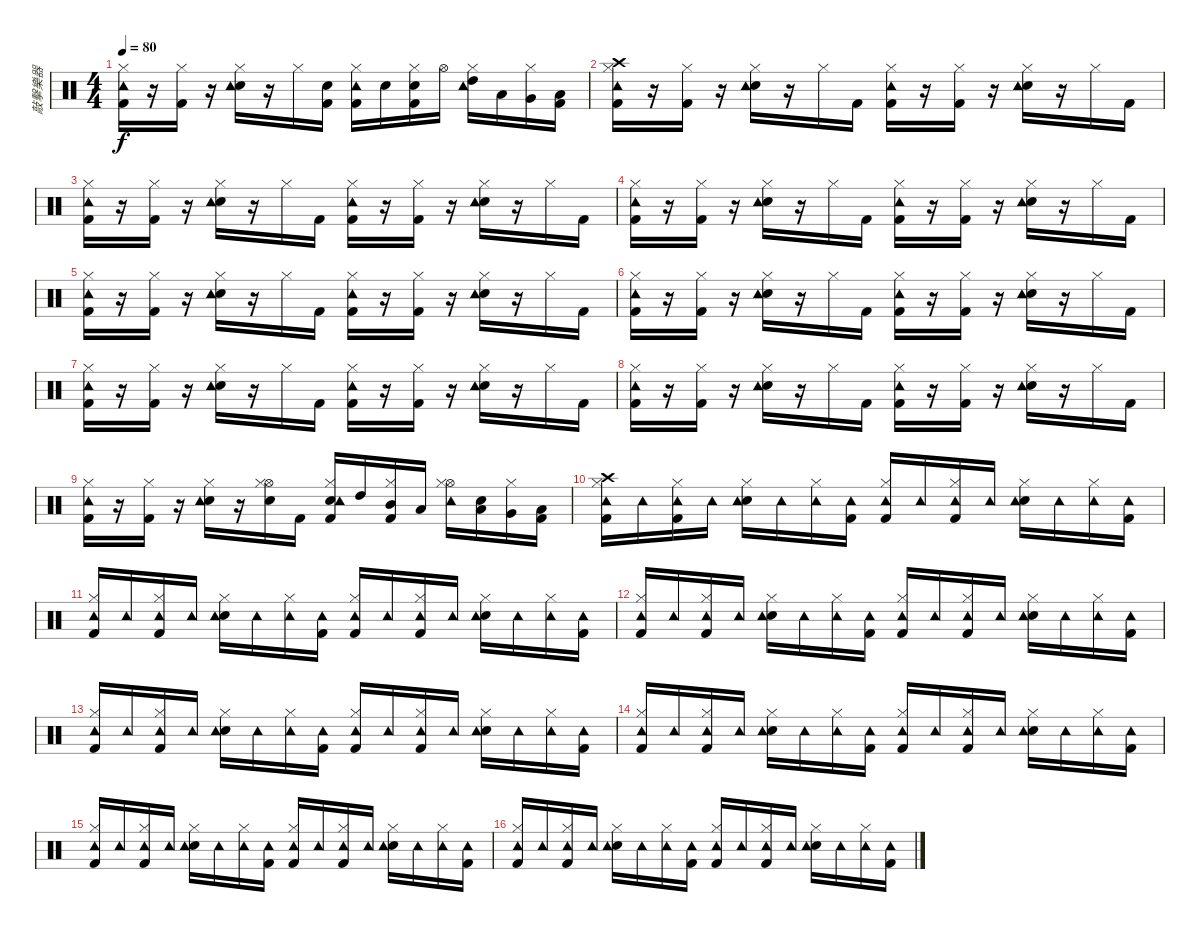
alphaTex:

\track ("敲擊樂器" "敲擊樂器") {instrument percussion}
\staff {score}
\articulation defaults
\ts (4 4)
\tempo 80
\clef neutral
\ks c
("Kick (hit) 2" "Hi-Hat (closed)" "Tambourine (hit)").16{dy f} r.16 ("Kick (hit) 2" "Hi-Hat (closed)").16 r.16 ("Snare (hit) 2" "Hi-Hat (closed)" "Tambourine (hit)").16 r.16 "Hi-Hat (closed)".16 ("Kick (hit) 2" "Snare (hit) 2").16 ("Kick (hit) 2" "Hi-Hat (closed)" "Tambourine (hit)").16 "Electric Snare (hit)".16 ("Kick (hit) 2" "Electric Snare (hit)" "Hi-Hat (closed)").16 "Hi-Hat (open)".16 ("High Tom (hit)" "Hi-Hat (closed)" "Tambourine (hit)").16 "Low Tom (hit)".16 ("Very Low Tom (hit)" "Hi-Hat (closed)").16 ("Kick (hit) 2" "Low Floor Tom (hit)").16 |
("Kick (hit) 2" "Crash high (hit)" "Hi-Hat (closed)" "Tambourine (hit)").16 r.16 ("Kick (hit) 2" "Hi-Hat (closed)").16 r.16 ("Snare (hit) 2" "Hi-Hat (closed)" "Tambourine (hit)").16 r.16 "Hi-Hat (closed)".16 "Kick (hit) 2".16 ("Kick (hit) 2" "Hi-Hat (closed)" "Tambourine (hit)").16 r.16 ("Kick (hit) 2" "Hi-Hat (closed)").16 r.16 ("Snare (hit) 2" "Hi-Hat (closed)" "Tambourine (hit)").16 r.16 "Hi-Hat (closed)".16 "Kick (hit) 2".16 |
("Kick (hit) 2" "Hi-Hat (closed)" "Tambourine (hit)").16 r.16 ("Kick (hit) 2" "Hi-Hat (closed)").16 r.16 ("Snare (hit) 2" "Hi-Hat (closed)" "Tambourine (hit)").16 r.16 "Hi-Hat (closed)".16 "Kick (hit) 2".16 ("Kick (hit) 2" "Hi-Hat (closed)" "Tambourine (hit)").16 r.16 ("Kick (hit) 2" "Hi-Hat (closed)").16 r.16 ("Snare (hit) 2" "Hi-Hat (closed)" "Tambourine (hit)").16 r.16 "Hi-Hat (closed)".16 "Kick (hit) 2".16 |
("Kick (hit) 2" "Hi-Hat (closed)" "Tambourine (hit)").16 r.16 ("Kick (hit) 2" "Hi-Hat (closed)").16 r.16 ("Snare (hit) 2" "Hi-Hat (closed)" "Tambourine (hit)").16 r.16 "Hi-Hat (closed)".16 "Kick (hit) 2".16 ("Kick (hit) 2" "Hi-Hat (closed)" "Tambourine (hit)").16 r.16 ("Kick (hit) 2" "Hi-Hat (closed)").16 r.16 ("Snare (hit) 2" "Hi-Hat (closed)" "Tambourine (hit)").16 r.16 "Hi-Hat (closed)".16 "Kick (hit) 2".16 |
("Kick (hit) 2" "Hi-Hat (closed)" "Tambourine (hit)").16 r.16 ("Kick (hit) 2" "Hi-Hat (closed)").16 r.16 ("Snare (hit) 2" "Hi-Hat (closed)" "Tambourine (hit)").16 r.16 "Hi-Hat (closed)".16 "Kick (hit) 2".16 ("Kick (hit) 2" "Hi-Hat (closed)" "Tambourine (hit)").16 r.16 ("Kick (hit) 2" "Hi-Hat (closed)").16 r.16 ("Snare (hit) 2" "Hi-Hat (closed)" "Tambourine (hit)").16 r.16 "Hi-Hat (closed)".16 "Kick (hit) 2".16 |
("Kick (hit) 2" "Hi-Hat (closed)" "Tambourine (hit)").16 r.16 ("Kick (hit) 2" "Hi-Hat (closed)").16 r.16 ("Snare (hit) 2" "Hi-Hat (closed)" "Tambourine (hit)").16 r.16 "Hi-Hat (closed)".16 "Kick (hit) 2".16 ("Kick (hit) 2" "Hi-Hat (closed)" "Tambourine (hit)").16 r.16 ("Kick (hit) 2" "Hi-Hat (closed)").16 r.16 ("Snare (hit) 2" "Hi-Hat (closed)" "Tambourine (hit)").16 r.16 "Hi-Hat (closed)".16 "Kick (hit) 2".16 |
("Kick (hit) 2" "Hi-Hat (closed)" "Tambourine (hit)").16 r.16 ("Kick (hit) 2" "Hi-Hat (closed)").16 r.16 ("Snare (hit) 2" "Hi-Hat (closed)" "Tambourine (hit)").16 r.16 "Hi-Hat (closed)".16 "Kick (hit) 2".16 ("Kick (hit) 2" "Hi-Hat (closed)" "Tambourine (hit)").16 r.16 ("Kick (hit) 2" "Hi-Hat (closed)").16 r.16 ("Snare (hit) 2" "Hi-Hat (closed)" "Tambourine (hit)").16 r.16 "Hi-Hat (closed)".16 "Kick (hit) 2".16 |
("Kick (hit) 2" "Hi-Hat (closed)" "Tambourine (hit)").16 r.16 ("Kick (hit) 2" "Hi-Hat (closed)").16 r.16 ("Snare (hit) 2" "Hi-Hat (closed)" "Tambourine (hit)").16 r.16 "Hi-Hat (closed)".16 "Kick (hit) 2".16 ("Kick (hit) 2" "Hi-Hat (closed)" "Tambourine (hit)").16 r.16 ("Kick (hit) 2" "Hi-Hat (closed)").16 r.16 ("Snare (hit) 2" "Hi-Hat (closed)" "Tambourine (hit)").16 r.16 "Hi-Hat (closed)".16 "Kick (hit) 2".16 |
("Kick (hit) 2" "Hi-Hat (closed)" "Tambourine (hit)").16 r.16 ("Kick (hit) 2" "Hi-Hat (closed)").16 r.16 ("Snare (hit) 2" "Hi-Hat (closed)" "Tambourine (hit)").16 r.16 ("Hi-Hat (open)" "Electric Snare (hit)" "Hi-Hat (closed)").16 "Kick (hit) 2".16 ("Kick (hit) 2" "Electric Snare (hit)" "Hi-Hat (closed)" "Tambourine (hit)").16 "High Tom (hit)".16 ("Kick (hit) 2" "Mid Tom (hit)" "Hi-Hat (closed)").16 "Low Tom (hit)".16 ("Hi-Hat (open)" "Hi-Hat (closed)" "Tambourine (hit)").16 ("Low Tom (hit)" "Snare (hit) 2").16 ("Very Low Tom (hit)" "Hi-Hat (closed)").16 ("Kick (hit) 2" "Low Floor Tom (hit)").16 |
("Kick (hit) 2" "Crash high (hit)" "Hi-Hat (closed)" "Tambourine (hit)").16 "Tambourine (hit)".16 ("Kick (hit) 2" "Hi-Hat (closed)" "Tambourine (hit)").16 "Tambourine (hit)".16 ("Snare (hit) 2" "Hi-Hat (closed)" "Tambourine (hit)").16 "Tambourine (hit)".16 ("Hi-Hat (closed)" "Tambourine (hit)").16 ("Kick (hit) 2" "Tambourine (hit)").16 ("Kick (hit) 2" "Hi-Hat (closed)" "Tambourine (hit)").16 "Tambourine (hit)".16 ("Kick (hit) 2" "Hi-Hat (closed)" "Tambourine (hit)").16 "Tambourine (hit)".16 ("Snare (hit) 2" "Hi-Hat (closed)" "Tambourine (hit)").16 "Tambourine (hit)".16 ("Hi-Hat (closed)" "Tambourine (hit)").16 ("Kick (hit) 2" "Tambourine (hit)").16 |
("Kick (hit) 2" "Hi-Hat (closed)" "Tambourine (hit)").16 "Tambourine (hit)".16 ("Kick (hit) 2" "Hi-Hat (closed)" "Tambourine (hit)").16 "Tambourine (hit)".16 ("Snare (hit) 2" "Hi-Hat (closed)" "Tambourine (hit)").16 "Tambourine (hit)".16 ("Hi-Hat (closed)" "Tambourine (hit)").16 ("Kick (hit) 2" "Tambourine (hit)").16 ("Kick (hit) 2" "Hi-Hat (closed)" "Tambourine (hit)").16 "Tambourine (hit)".16 ("Kick (hit) 2" "Hi-Hat (closed)" "Tambourine (hit)").16 "Tambourine (hit)".16 ("Snare (hit) 2" "Hi-Hat (closed)" "Tambourine (hit)").16 "Tambourine (hit)".16 ("Hi-Hat (closed)" "Tambourine (hit)").16 ("Kick (hit) 2" "Tambourine (hit)").16 |
("Kick (hit) 2" "Hi-Hat (closed)" "Tambourine (hit)").16 "Tambourine (hit)".16 ("Kick (hit) 2" "Hi-Hat (closed)" "Tambourine (hit)").16 "Tambourine (hit)".16 ("Snare (hit) 2" "Hi-Hat (closed)" "Tambourine (hit)").16 "Tambourine (hit)".16 ("Hi-Hat (closed)" "Tambourine (hit)").16 ("Kick (hit) 2" "Tambourine (hit)").16 ("Kick (hit) 2" "Hi-Hat (closed)" "Tambourine (hit)").16 "Tambourine (hit)".16 ("Kick (hit) 2" "Hi-Hat (closed)" "Tambourine (hit)").16 "Tambourine (hit)".16 ("Snare (hit) 2" "Hi-Hat (closed)" "Tambourine (hit)").16 "Tambourine (hit)".16 ("Hi-Hat (closed)" "Tambourine (hit)").16 ("Kick (hit) 2" "Tambourine (hit)").16 |
("Kick (hit) 2" "Hi-Hat (closed)" "Tambourine (hit)").16 "Tambourine (hit)".16 ("Kick (hit) 2" "Hi-Hat (closed)" "Tambourine (hit)").16 "Tambourine (hit)".16 ("Snare (hit) 2" "Hi-Hat (closed)" "Tambourine (hit)").16 "Tambourine (hit)".16 ("Hi-Hat (closed)" "Tambourine (hit)").16 ("Kick (hit) 2" "Tambourine (hit)").16 ("Kick (hit) 2" "Hi-Hat (closed)" "Tambourine (hit)").16 "Tambourine (hit)".16 ("Kick (hit) 2" "Hi-Hat (closed)" "Tambourine (hit)").16 "Tambourine (hit)".16 ("Snare (hit) 2" "Hi-Hat (closed)" "Tambourine (hit)").16 "Tambourine (hit)".16 ("Hi-Hat (closed)" "Tambourine (hit)").16 ("Kick (hit) 2" "Tambourine (hit)").16 |
("Kick (hit) 2" "Hi-Hat (closed)" "Tambourine (hit)").16 "Tambourine (hit)".16 ("Kick (hit) 2" "Hi-Hat (closed)" "Tambourine (hit)").16 "Tambourine (hit)".16 ("Snare (hit) 2" "Hi-Hat (closed)" "Tambourine (hit)").16 "Tambourine (hit)".16 ("Hi-Hat (closed)" "Tambourine (hit)").16 ("Kick (hit) 2" "Tambourine (hit)").16 ("Kick (hit) 2" "Hi-Hat (closed)" "Tambourine (hit)").16 "Tambourine (hit)".16 ("Kick (hit) 2" "Hi-Hat (closed)" "Tambourine (hit)").16 "Tambourine (hit)".16 ("Snare (hit) 2" "Hi-Hat (closed)" "Tambourine (hit)").16 "Tambourine (hit)".16 ("Hi-Hat (closed)" "Tambourine (hit)").16 ("Kick (hit) 2" "Tambourine (hit)").16 |
("Kick (hit) 2" "Hi-Hat (closed)" "Tambourine (hit)").16 "Tambourine (hit)".16 ("Kick (hit) 2" "Hi-Hat (closed)" "Tambourine (hit)").16 "Tambourine (hit)".16 ("Snare (hit) 2" "Hi-Hat (closed)" "Tambourine (hit)").16 "Tambourine (hit)".16 ("Hi-Hat (closed)" "Tambourine (hit)").16 ("Kick (hit) 2" "Tambourine (hit)").16 ("Kick (hit) 2" "Hi-Hat (closed)" "Tambourine (hit)").16 "Tambourine (hit)".16 ("Kick (hit) 2" "Hi-Hat (closed)" "Tambourine (hit)").16 "Tambourine (hit)".16 ("Snare (hit) 2" "Hi-Hat (closed)" "Tambourine (hit)").16 "Tambourine (hit)".16 ("Hi-Hat (closed)" "Tambourine (hit)").16 ("Kick (hit) 2" "Tambourine (hit)").16 |
("Kick (hit) 2" "Hi-Hat (closed)" "Tambourine (hit)").16 "Tambourine (hit)".16 ("Kick (hit) 2" "Hi-Hat (closed)" "Tambourine (hit)").16 "Tambourine (hit)".16 ("Snare (hit) 2" "Hi-Hat (closed)" "Tambourine (hit)").16 "Tambourine (hit)".16 ("Hi-Hat (closed)" "Tambourine (hit)").16 ("Kick (hit) 2" "Tambourine (hit)").16 ("Kick (hit) 2" "Hi-Hat (closed)" "Tambourine (hit)").16 "Tambourine (hit)".16 ("Kick (hit) 2" "Hi-Hat (closed)" "Tambourine (hit)").16 "Tambourine (hit)".16 ("Snare (hit) 2" "Hi-Hat (closed)" "Tambourine (hit)").16 "Tambourine (hit)".16 ("Hi-Hat (closed)" "Tambourine (hit)").16 ("Kick (hit) 2" "Tambourine (hit)").16
